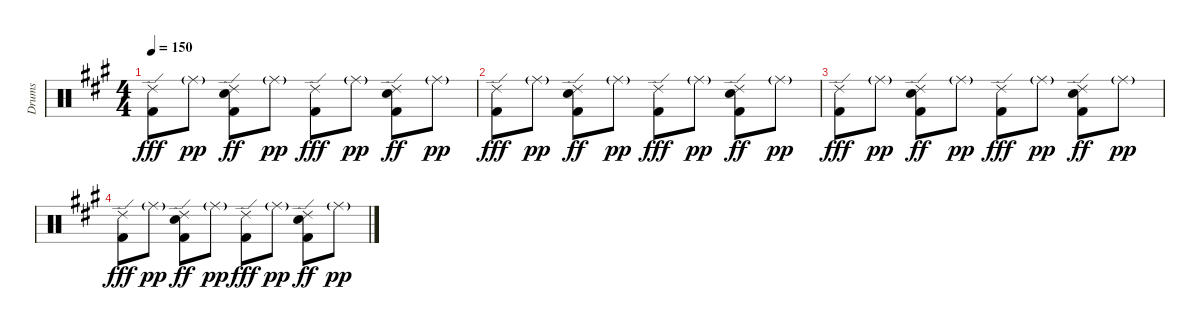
\track ("Drums" "Drums") {instrument percussion}
\staff {score}
\articulation defaults
\ts (4 4)
\tempo 150
\clef neutral
\ks a
("Kick (hit) 2" "Ride (edge) 2").8{dy fff} "Ride (middle)"{g}.8{dy pp} ("Kick (hit) 2" "Electric Snare (hit)" "Ride (edge) 2").8{dy ff} "Ride (middle)"{g}.8{dy pp} ("Kick (hit) 2" "Ride (edge) 2").8{dy fff} "Ride (middle)"{g}.8{dy pp} ("Kick (hit) 2" "Electric Snare (hit)" "Ride (edge) 2").8{dy ff} "Ride (middle)"{g}.8{dy pp} |
("Kick (hit) 2" "Ride (edge) 2").8{dy fff} "Ride (middle)"{g}.8{dy pp} ("Kick (hit) 2" "Electric Snare (hit)" "Ride (edge) 2").8{dy ff} "Ride (middle)"{g}.8{dy pp} ("Kick (hit) 2" "Ride (edge) 2").8{dy fff} "Ride (middle)"{g}.8{dy pp} ("Kick (hit) 2" "Electric Snare (hit)" "Ride (edge) 2").8{dy ff} "Ride (middle)"{g}.8{dy pp} |
("Kick (hit) 2" "Ride (edge) 2").8{dy fff} "Ride (middle)"{g}.8{dy pp} ("Kick (hit) 2" "Electric Snare (hit)" "Ride (edge) 2").8{dy ff} "Ride (middle)"{g}.8{dy pp} ("Kick (hit) 2" "Ride (edge) 2").8{dy fff} "Ride (middle)"{g}.8{dy pp} ("Kick (hit) 2" "Electric Snare (hit)" "Ride (edge) 2").8{dy ff} "Ride (middle)"{g}.8{dy pp} |
("Kick (hit) 2" "Ride (edge) 2").8{dy fff} "Ride (middle)"{g}.8{dy pp} ("Kick (hit) 2" "Electric Snare (hit)" "Ride (edge) 2").8{dy ff} "Ride (middle)"{g}.8{dy pp} ("Kick (hit) 2" "Ride (edge) 2").8{dy fff} "Ride (middle)"{g}.8{dy pp} ("Kick (hit) 2" "Electric Snare (hit)" "Ride (edge) 2").8{dy ff} "Ride (middle)"{g}.8{dy pp}
